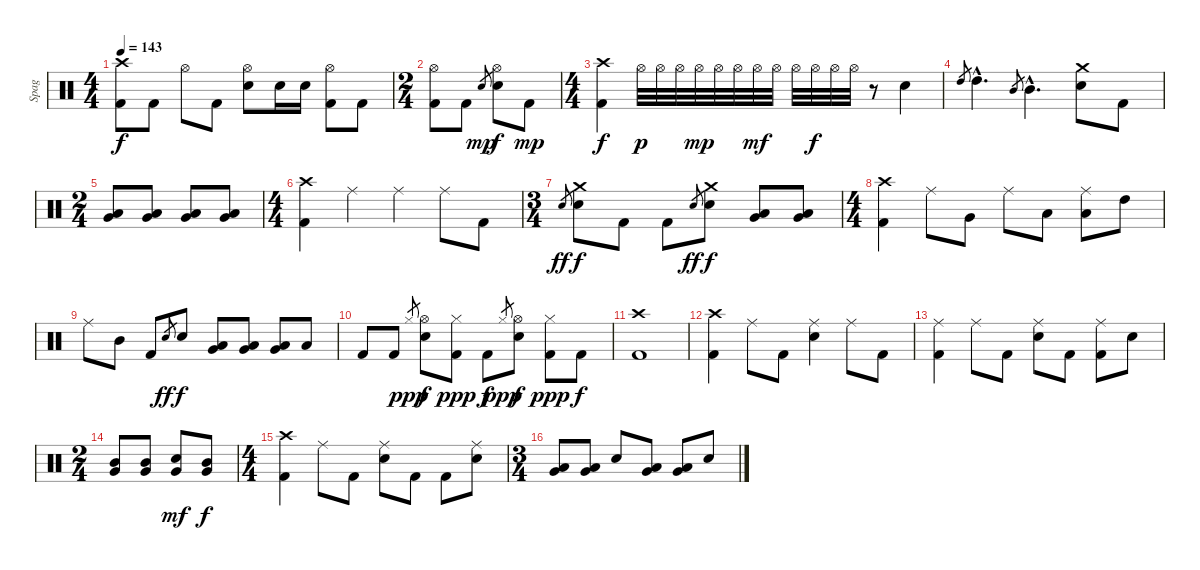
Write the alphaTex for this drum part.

\track ("Spag" "Spag") {instrument percussion}
\staff {score}
\articulation defaults
\ts (4 4)
\tempo 143
\clef neutral
\ks c
("Crash high (hit)" "Kick (hit) 2").8{dy f} "Kick (hit) 2".8 "Hi-Hat (open)".8 "Kick (hit) 2".8 ("Hi-Hat (open)" "Electric Snare (hit)").8 "Electric Snare (hit)".16 "Electric Snare (hit)".16 ("Hi-Hat (open)" "Kick (hit) 2").8 "Kick (hit) 2".8 |
\ts (2 4)
("Hi-Hat (open)" "Kick (hit) 2").8 "Kick (hit) 2".8 "Electric Snare (hit)".8{gr dy mp} ("Hi-Hat (open)" "Electric Snare (hit)").8{dy f} "Kick (hit) 2".8{dy mp} |
\ts (4 4)
("Crash high (hit)" "Kick (hit) 2").4{dy f} "Hi-Hat (open)".32{dy p} "Hi-Hat (open)".32 "Hi-Hat (open)".32 "Hi-Hat (open)".32{dy mp} "Hi-Hat (open)".32 "Hi-Hat (open)".32 "Hi-Hat (open)".32{dy mf} "Hi-Hat (open)".32 "Hi-Hat (open)".32 "Hi-Hat (open)".32{dy f} "Hi-Hat (open)".32 "Hi-Hat (open)".32 r.8 "Electric Snare (hit)".4 |
"High Tom (hit)".8{gr} "High Tom (hit)"{hac}.4{d} "Mid Tom (hit)".8{gr} "Mid Tom (hit)"{hac}.4{d} ("Crash medium (hit)" "Electric Snare (hit)").8 "Kick (hit) 2".8 |
\ts (2 4)
("Very Low Tom (hit)" "Low Floor Tom (hit)").8 ("Very Low Tom (hit)" "Low Floor Tom (hit)").8 ("Very Low Tom (hit)" "Low Floor Tom (hit)").8 ("Very Low Tom (hit)" "Low Floor Tom (hit)").8 |
\ts (4 4)
("Crash high (hit)" "Kick (hit) 2").4 "Ride (middle)".4 "Ride (middle)".4 "Ride (middle)".8 "Kick (hit) 2".8 |
\ts (3 4)
"Electric Snare (hit)".8{gr dy ff} ("Crash medium (hit)" "Electric Snare (hit)").8{dy f} "Kick (hit) 2".8 "Kick (hit) 2".8 "Electric Snare (hit)".8{gr dy ff} ("Crash medium (hit)" "Electric Snare (hit)").8{dy f} ("Very Low Tom (hit)" "Low Floor Tom (hit)").8 ("Very Low Tom (hit)" "Low Floor Tom (hit)").8 |
\ts (4 4)
("Crash high (hit)" "Kick (hit) 2").4 "Ride (middle)".8 "Very Low Tom (hit)".8 "Ride (middle)".8 "Low Tom (hit)".8 ("Ride (middle)" "Low Tom (hit)").8 "High Tom (hit)".8 |
"Ride (middle)".8 "Mid Tom (hit)".8 "Kick (hit) 2".8 "Electric Snare (hit)".8{gr dy ff} "Electric Snare (hit)".8{dy f} ("Low Tom (hit)" "Very Low Tom (hit)").8 ("Low Tom (hit)" "Very Low Tom (hit)").8 ("Low Tom (hit)" "Very Low Tom (hit)").8 "Low Floor Tom (hit)".8 |
"Kick (hit) 2".8 "Kick (hit) 2".8 "Hi-Hat (closed)".8{gr dy ppp} ("Hi-Hat (open)" "Electric Snare (hit)").8{dy f} ("Hi-Hat (closed)" "Kick (hit) 2").8{dy ppp} "Kick (hit) 2".8{dy f} "Hi-Hat (closed)".8{gr dy ppp} ("Hi-Hat (open)" "Electric Snare (hit)").8{dy f} ("Hi-Hat (closed)" "Kick (hit) 2").8{dy ppp} "Kick (hit) 2".8{dy f} |
("Crash high (hit)" "Kick (hit) 2").1 |
("Crash high (hit)" "Kick (hit) 2").4 "Ride (middle)".8 "Kick (hit) 2".8 ("Ride (middle)" "Electric Snare (hit)").4 "Ride (middle)".8 "Kick (hit) 2".8 |
("Ride (middle)" "Kick (hit) 2").4 "Ride (middle)".8 "Kick (hit) 2".8 ("Ride (middle)" "Electric Snare (hit)").8 "Kick (hit) 2".8 ("Ride (middle)" "Kick (hit) 2").8 "Electric Snare (hit)".8 |
\ts (2 4)
("Mid Tom (hit)" "Very Low Tom (hit)").8 ("Mid Tom (hit)" "Very Low Tom (hit)").8 ("Electric Snare (hit)" "Very Low Tom (hit)").8{dy mf} ("Mid Tom (hit)" "Very Low Tom (hit)").8{dy f} |
\ts (4 4)
("Crash high (hit)" "Kick (hit) 2").4 "Ride (middle)".8 "Kick (hit) 2".8 ("Ride (middle)" "Electric Snare (hit)").8 "Kick (hit) 2".8 "Kick (hit) 2".8 ("Ride (middle)" "Electric Snare (hit)").8 |
\ts (3 4)
("Very Low Tom (hit)" "Low Floor Tom (hit)").8 ("Very Low Tom (hit)" "Low Floor Tom (hit)").8 "Electric Snare (hit)".8 ("Very Low Tom (hit)" "Low Floor Tom (hit)").8 ("Very Low Tom (hit)" "Low Floor Tom (hit)").8 "Electric Snare (hit)".8
